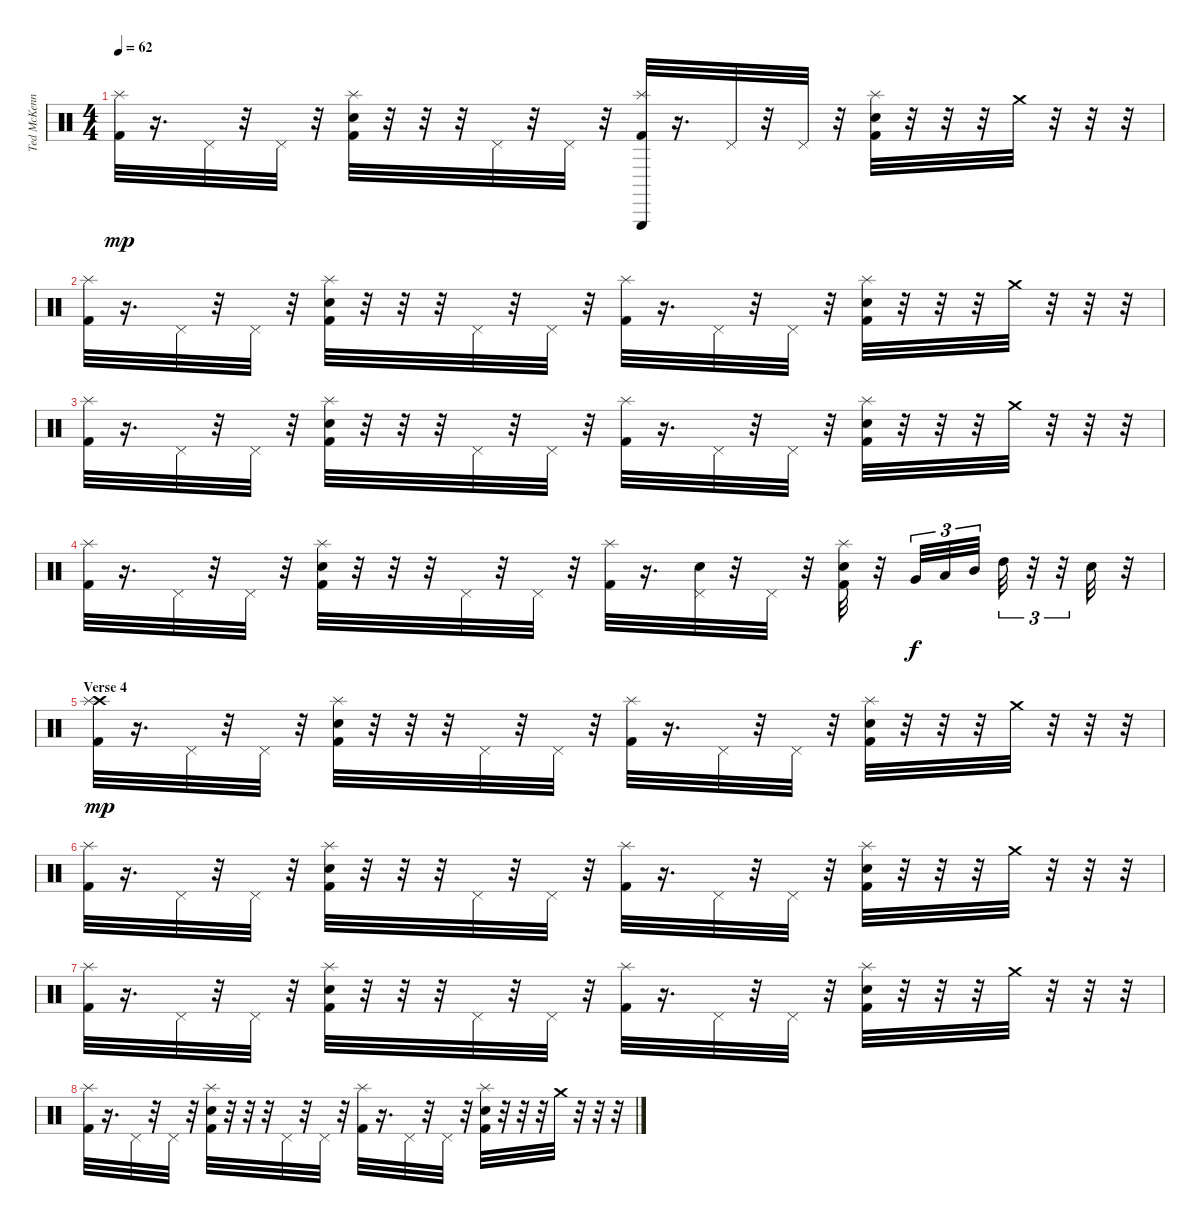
\track ("Ted McKenna" "Ted McKenn") {instrument percussion}
\staff {score}
\articulation defaults
\ts (4 4)
\tempo 62
\clef neutral
\ks c
("Splash (hit)" "Kick (hit) 2").32{dy mp} r.16{d} "Pedal Hi-Hat (hit)".32 r.32 "Pedal Hi-Hat (hit)".32 r.32 ("Splash (hit)" "Electric Snare (hit)" "Kick (hit) 2").32 r.32 r.32 r.32 "Pedal Hi-Hat (hit)".32 r.32 "Pedal Hi-Hat (hit)".32 r.32 ("Triangle (hit)" "Splash (hit)" "Kick (hit) 2").32 r.16{d} "Pedal Hi-Hat (hit)".32 r.32 "Pedal Hi-Hat (hit)".32 r.32 ("Splash (hit)" "Electric Snare (hit)" "Kick (hit) 2").32 r.32 r.32 r.32 "Crash medium (hit)".32 r.32 r.32 r.32 |
("Splash (hit)" "Kick (hit) 2").32 r.16{d} "Pedal Hi-Hat (hit)".32 r.32 "Pedal Hi-Hat (hit)".32 r.32 ("Splash (hit)" "Electric Snare (hit)" "Kick (hit) 2").32 r.32 r.32 r.32 "Pedal Hi-Hat (hit)".32 r.32 "Pedal Hi-Hat (hit)".32 r.32 ("Splash (hit)" "Kick (hit) 2").32 r.16{d} "Pedal Hi-Hat (hit)".32 r.32 "Pedal Hi-Hat (hit)".32 r.32 ("Splash (hit)" "Electric Snare (hit)" "Kick (hit) 2").32 r.32 r.32 r.32 "Crash medium (hit)".32 r.32 r.32 r.32 |
("Splash (hit)" "Kick (hit) 2").32 r.16{d} "Pedal Hi-Hat (hit)".32 r.32 "Pedal Hi-Hat (hit)".32 r.32 ("Splash (hit)" "Electric Snare (hit)" "Kick (hit) 2").32 r.32 r.32 r.32 "Pedal Hi-Hat (hit)".32 r.32 "Pedal Hi-Hat (hit)".32 r.32 ("Splash (hit)" "Kick (hit) 2").32 r.16{d} "Pedal Hi-Hat (hit)".32 r.32 "Pedal Hi-Hat (hit)".32 r.32 ("Splash (hit)" "Electric Snare (hit)" "Kick (hit) 2").32 r.32 r.32 r.32 "Crash medium (hit)".32 r.32 r.32 r.32 |
("Splash (hit)" "Kick (hit) 2").32 r.16{d} "Pedal Hi-Hat (hit)".32 r.32 "Pedal Hi-Hat (hit)".32 r.32 ("Splash (hit)" "Electric Snare (hit)" "Kick (hit) 2").32 r.32 r.32 r.32 "Pedal Hi-Hat (hit)".32 r.32 "Pedal Hi-Hat (hit)".32 r.32 ("Splash (hit)" "Kick (hit) 2").32 r.16{d} ("Electric Snare (hit)" "Pedal Hi-Hat (hit)").32 r.32 "Pedal Hi-Hat (hit)".32 r.32 ("Splash (hit)" "Electric Snare (hit)" "Kick (hit) 2").32 r.32 "Very Low Tom (hit)".32{tu (3 2) dy f} "Low Tom (hit)".32{tu (3 2)} "Mid Tom (hit)".32{tu (3 2)} "High Tom (hit)".32{tu (3 2)} r.32{tu (3 2)} r.32{tu (3 2)} "Snare (hit) 2".32 r.32 |
\section ("" "Verse 4")
("Crash high (hit)" "Splash (hit)" "Kick (hit) 2").32{dy mp} r.16{d} "Pedal Hi-Hat (hit)".32 r.32 "Pedal Hi-Hat (hit)".32 r.32 ("Splash (hit)" "Electric Snare (hit)" "Kick (hit) 2").32 r.32 r.32 r.32 "Pedal Hi-Hat (hit)".32 r.32 "Pedal Hi-Hat (hit)".32 r.32 ("Splash (hit)" "Kick (hit) 2").32 r.16{d} "Pedal Hi-Hat (hit)".32 r.32 "Pedal Hi-Hat (hit)".32 r.32 ("Splash (hit)" "Electric Snare (hit)" "Kick (hit) 2").32 r.32 r.32 r.32 "Crash medium (hit)".32 r.32 r.32 r.32 |
("Splash (hit)" "Kick (hit) 2").32 r.16{d} "Pedal Hi-Hat (hit)".32 r.32 "Pedal Hi-Hat (hit)".32 r.32 ("Splash (hit)" "Electric Snare (hit)" "Kick (hit) 2").32 r.32 r.32 r.32 "Pedal Hi-Hat (hit)".32 r.32 "Pedal Hi-Hat (hit)".32 r.32 ("Splash (hit)" "Kick (hit) 2").32 r.16{d} "Pedal Hi-Hat (hit)".32 r.32 "Pedal Hi-Hat (hit)".32 r.32 ("Splash (hit)" "Electric Snare (hit)" "Kick (hit) 2").32 r.32 r.32 r.32 "Crash medium (hit)".32 r.32 r.32 r.32 |
("Splash (hit)" "Kick (hit) 2").32 r.16{d} "Pedal Hi-Hat (hit)".32 r.32 "Pedal Hi-Hat (hit)".32 r.32 ("Splash (hit)" "Electric Snare (hit)" "Kick (hit) 2").32 r.32 r.32 r.32 "Pedal Hi-Hat (hit)".32 r.32 "Pedal Hi-Hat (hit)".32 r.32 ("Splash (hit)" "Kick (hit) 2").32 r.16{d} "Pedal Hi-Hat (hit)".32 r.32 "Pedal Hi-Hat (hit)".32 r.32 ("Splash (hit)" "Electric Snare (hit)" "Kick (hit) 2").32 r.32 r.32 r.32 "Crash medium (hit)".32 r.32 r.32 r.32 |
("Splash (hit)" "Kick (hit) 2").32 r.16{d} "Pedal Hi-Hat (hit)".32 r.32 "Pedal Hi-Hat (hit)".32 r.32 ("Splash (hit)" "Electric Snare (hit)" "Kick (hit) 2").32 r.32 r.32 r.32 "Pedal Hi-Hat (hit)".32 r.32 "Pedal Hi-Hat (hit)".32 r.32 ("Splash (hit)" "Kick (hit) 2").32 r.16{d} "Pedal Hi-Hat (hit)".32 r.32 "Pedal Hi-Hat (hit)".32 r.32 ("Splash (hit)" "Electric Snare (hit)" "Kick (hit) 2").32 r.32 r.32 r.32 "Crash medium (hit)".32 r.32 r.32 r.32
